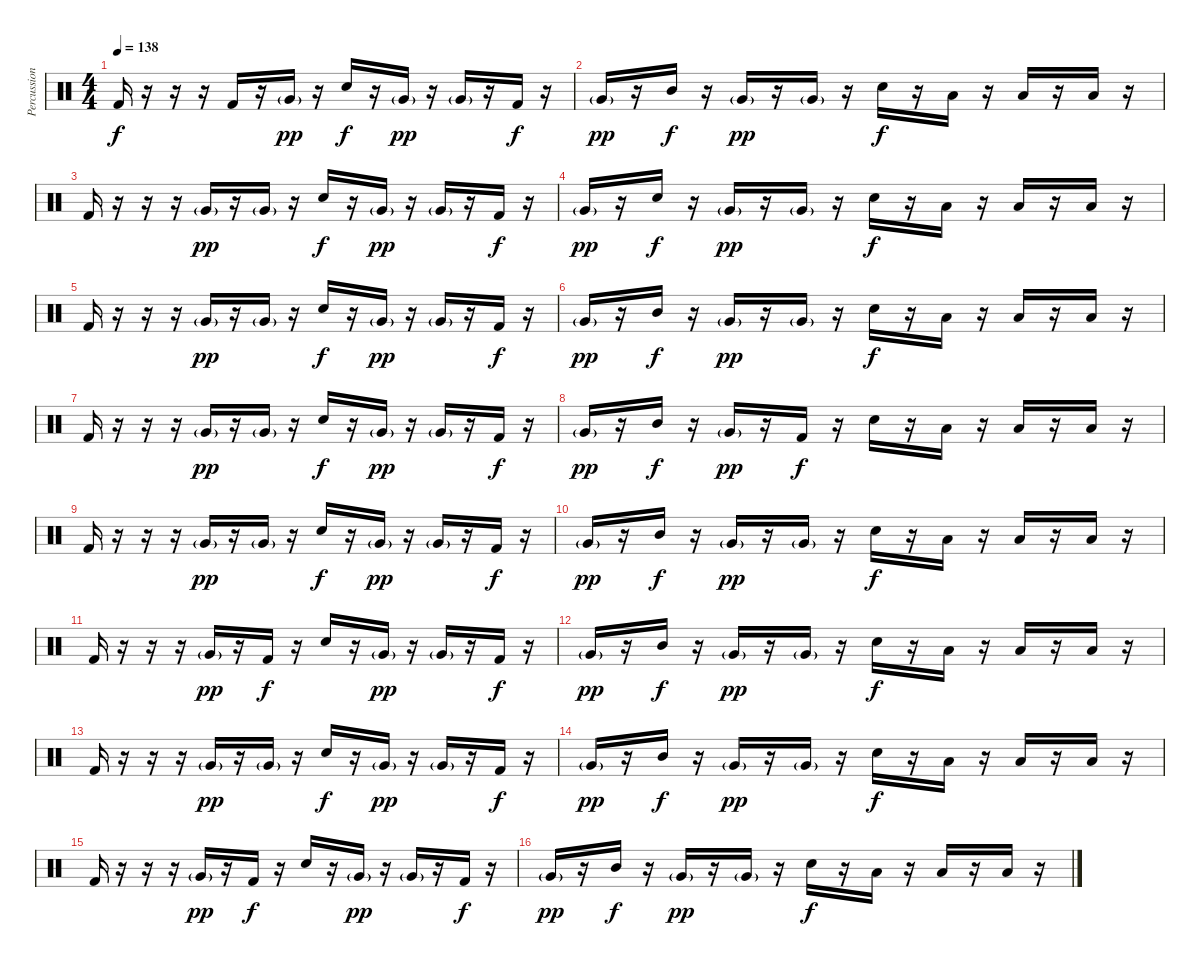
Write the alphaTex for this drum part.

\track ("Percussion" "Percussion") {instrument percussion}
\staff {score}
\articulation defaults
\ts (4 4)
\tempo 138
\clef neutral
\ks c "Kick (hit) 2".16{dy f}
r.16 r.16 r.16 "Kick (hit) 2".16 r.16 "Very Low Tom (hit)"{g}.16{dy pp} r.16 "Electric Snare (hit)".16{dy f} r.16 "Very Low Tom (hit)"{g}.16{dy pp} r.16 "Very Low Tom (hit)"{g}.16 r.16 "Kick (hit) 2".16{dy f} r.16 |
"Very Low Tom (hit)"{g}.16{dy pp} r.16 "Mid Tom (hit)".16{dy f} r.16 "Very Low Tom (hit)"{g}.16{dy pp} r.16 "Very Low Tom (hit)"{g}.16 r.16 "Electric Snare (hit)".16{dy f} r.16 "Low Tom (hit)".16 r.16 "Low Tom (hit)".16 r.16 "Low Tom (hit)".16 r.16 |
"Kick (hit) 2".16 r.16 r.16 r.16 "Very Low Tom (hit)"{g}.16{dy pp} r.16 "Very Low Tom (hit)"{g}.16 r.16 "Electric Snare (hit)".16{dy f} r.16 "Very Low Tom (hit)"{g}.16{dy pp} r.16 "Very Low Tom (hit)"{g}.16 r.16 "Kick (hit) 2".16{dy f} r.16 |
"Very Low Tom (hit)"{g}.16{dy pp} r.16 "Electric Snare (hit)".16{dy f} r.16 "Very Low Tom (hit)"{g}.16{dy pp} r.16 "Very Low Tom (hit)"{g}.16 r.16 "Electric Snare (hit)".16{dy f} r.16 "Low Tom (hit)".16 r.16 "Low Tom (hit)".16 r.16 "Low Tom (hit)".16 r.16 |
"Kick (hit) 2".16 r.16 r.16 r.16 "Very Low Tom (hit)"{g}.16{dy pp} r.16 "Very Low Tom (hit)"{g}.16 r.16 "Electric Snare (hit)".16{dy f} r.16 "Very Low Tom (hit)"{g}.16{dy pp} r.16 "Very Low Tom (hit)"{g}.16 r.16 "Kick (hit) 2".16{dy f} r.16 |
"Very Low Tom (hit)"{g}.16{dy pp} r.16 "Mid Tom (hit)".16{dy f} r.16 "Very Low Tom (hit)"{g}.16{dy pp} r.16 "Very Low Tom (hit)"{g}.16 r.16 "Electric Snare (hit)".16{dy f} r.16 "Low Tom (hit)".16 r.16 "Low Tom (hit)".16 r.16 "Low Tom (hit)".16 r.16 |
"Kick (hit) 2".16 r.16 r.16 r.16 "Very Low Tom (hit)"{g}.16{dy pp} r.16 "Very Low Tom (hit)"{g}.16 r.16 "Electric Snare (hit)".16{dy f} r.16 "Very Low Tom (hit)"{g}.16{dy pp} r.16 "Very Low Tom (hit)"{g}.16 r.16 "Kick (hit) 2".16{dy f} r.16 |
"Very Low Tom (hit)"{g}.16{dy pp} r.16 "Mid Tom (hit)".16{dy f} r.16 "Very Low Tom (hit)"{g}.16{dy pp} r.16 "Kick (hit) 2".16{dy f} r.16 "Electric Snare (hit)".16 r.16 "Low Tom (hit)".16 r.16 "Low Tom (hit)".16 r.16 "Low Tom (hit)".16 r.16 |
"Kick (hit) 2".16 r.16 r.16 r.16 "Very Low Tom (hit)"{g}.16{dy pp} r.16 "Very Low Tom (hit)"{g}.16 r.16 "Electric Snare (hit)".16{dy f} r.16 "Very Low Tom (hit)"{g}.16{dy pp} r.16 "Very Low Tom (hit)"{g}.16 r.16 "Kick (hit) 2".16{dy f} r.16 |
"Very Low Tom (hit)"{g}.16{dy pp} r.16 "Mid Tom (hit)".16{dy f} r.16 "Very Low Tom (hit)"{g}.16{dy pp} r.16 "Very Low Tom (hit)"{g}.16 r.16 "Electric Snare (hit)".16{dy f} r.16 "Low Tom (hit)".16 r.16 "Low Tom (hit)".16 r.16 "Low Tom (hit)".16 r.16 |
"Kick (hit) 2".16 r.16 r.16 r.16 "Very Low Tom (hit)"{g}.16{dy pp} r.16 "Kick (hit) 2".16{dy f} r.16 "Electric Snare (hit)".16 r.16 "Very Low Tom (hit)"{g}.16{dy pp} r.16 "Very Low Tom (hit)"{g}.16 r.16 "Kick (hit) 2".16{dy f} r.16 |
"Very Low Tom (hit)"{g}.16{dy pp} r.16 "Mid Tom (hit)".16{dy f} r.16 "Very Low Tom (hit)"{g}.16{dy pp} r.16 "Very Low Tom (hit)"{g}.16 r.16 "Electric Snare (hit)".16{dy f} r.16 "Low Tom (hit)".16 r.16 "Low Tom (hit)".16 r.16 "Low Tom (hit)".16 r.16 |
"Kick (hit) 2".16 r.16 r.16 r.16 "Very Low Tom (hit)"{g}.16{dy pp} r.16 "Very Low Tom (hit)"{g}.16 r.16 "Electric Snare (hit)".16{dy f} r.16 "Very Low Tom (hit)"{g}.16{dy pp} r.16 "Very Low Tom (hit)"{g}.16 r.16 "Kick (hit) 2".16{dy f} r.16 |
"Very Low Tom (hit)"{g}.16{dy pp} r.16 "Mid Tom (hit)".16{dy f} r.16 "Very Low Tom (hit)"{g}.16{dy pp} r.16 "Very Low Tom (hit)"{g}.16 r.16 "Electric Snare (hit)".16{dy f} r.16 "Low Tom (hit)".16 r.16 "Low Tom (hit)".16 r.16 "Low Tom (hit)".16 r.16 |
"Kick (hit) 2".16 r.16 r.16 r.16 "Very Low Tom (hit)"{g}.16{dy pp} r.16 "Kick (hit) 2".16{dy f} r.16 "Electric Snare (hit)".16 r.16 "Very Low Tom (hit)"{g}.16{dy pp} r.16 "Very Low Tom (hit)"{g}.16 r.16 "Kick (hit) 2".16{dy f} r.16 |
"Very Low Tom (hit)"{g}.16{dy pp} r.16 "Mid Tom (hit)".16{dy f} r.16 "Very Low Tom (hit)"{g}.16{dy pp} r.16 "Very Low Tom (hit)"{g}.16 r.16 "Electric Snare (hit)".16{dy f} r.16 "Low Tom (hit)".16 r.16 "Low Tom (hit)".16 r.16 "Low Tom (hit)".16 r.16
